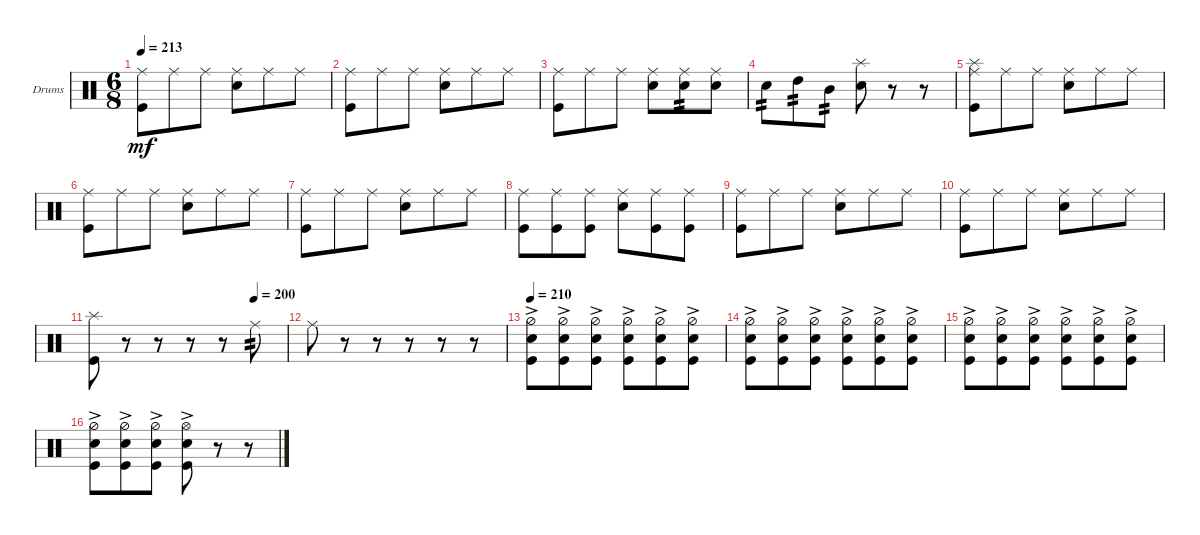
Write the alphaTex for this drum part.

\bracketExtendMode groupsimilarinstruments
\firstSystemTrackNameOrientation horizontal
\otherSystemsTrackNameOrientation horizontal
\track ("Drumkit" "Drums") {instrument percussion}
\staff {score}
\articulation defaults
\ts (6 8)
\tempo 213
\clef neutral
\ks c
("Kick (hit)" "Ride (middle)").8{dy mf} "Ride (middle)".8 "Ride (middle)".8 ("Snare (hit) 2" "Ride (middle)").8 "Ride (middle)".8 "Ride (middle)".8 |
("Kick (hit)" "Ride (middle)").8 "Ride (middle)".8 "Ride (middle)".8 ("Snare (hit) 2" "Ride (middle)").8 "Ride (middle)".8 "Ride (middle)".8 |
("Kick (hit)" "Ride (middle)").8 "Ride (middle)".8 "Ride (middle)".8 ("Snare (hit) 2" "Ride (middle)").8 ("Ride (middle)" "Snare (hit) 2").8{tp 2} ("Ride (middle)" "Snare (hit) 2").8 |
"Snare (hit) 2".8{tp 2} "High Tom (hit)".8{tp 2} "Mid Tom (hit)".8{tp 2} ("Snare (hit) 2" "Splash (hit)").8 r.8 r.8 |
("Kick (hit)" "Splash (hit)" "Ride (middle)").8 "Ride (middle)".8 "Ride (middle)".8 ("Snare (hit) 2" "Ride (middle)").8 "Ride (middle)".8 "Ride (middle)".8 |
("Kick (hit)" "Ride (middle)").8 "Ride (middle)".8 "Ride (middle)".8 ("Snare (hit) 2" "Ride (middle)").8 "Ride (middle)".8 "Ride (middle)".8 |
("Kick (hit)" "Ride (middle)").8 "Ride (middle)".8 "Ride (middle)".8 ("Snare (hit) 2" "Ride (middle)").8 "Ride (middle)".8 "Ride (middle)".8 |
("Kick (hit)" "Ride (middle)").8 ("Kick (hit)" "Ride (middle)").8 ("Kick (hit)" "Ride (middle)").8 ("Snare (hit) 2" "Ride (middle)").8 ("Kick (hit)" "Ride (middle)").8 ("Kick (hit)" "Ride (middle)").8 |
("Kick (hit)" "Ride (middle)").8 "Ride (middle)".8 "Ride (middle)".8 ("Snare (hit) 2" "Ride (middle)").8 "Ride (middle)".8 "Ride (middle)".8 |
("Kick (hit)" "Ride (middle)").8 "Ride (middle)".8 "Ride (middle)".8 ("Snare (hit) 2" "Ride (middle)").8 "Ride (middle)".8 "Ride (middle)".8 |
\tempo (200 0.833333)
("Kick (hit)" "Splash (hit)").8 r.8 r.8 r.8 r.8 "Ride (middle)".8{tp 2} |
"Ride (middle)".8 r.8 r.8 r.8 r.8 r.8 |
\tempo 210
("Snare (hit) 2"{ac} "Hi-Hat (half)"{ac} "Kick (hit)"{ac}).8 ("Snare (hit) 2"{ac} "Hi-Hat (half)"{ac} "Kick (hit)"{ac}).8 ("Snare (hit) 2"{ac} "Hi-Hat (half)"{ac} "Kick (hit)"{ac}).8 ("Snare (hit) 2"{ac} "Hi-Hat (half)"{ac} "Kick (hit)"{ac}).8 ("Snare (hit) 2"{ac} "Hi-Hat (half)"{ac} "Kick (hit)"{ac}).8 ("Snare (hit) 2"{ac} "Hi-Hat (half)"{ac} "Kick (hit)"{ac}).8 |
("Snare (hit) 2"{ac} "Hi-Hat (half)"{ac} "Kick (hit)"{ac}).8 ("Snare (hit) 2"{ac} "Hi-Hat (half)"{ac} "Kick (hit)"{ac}).8 ("Snare (hit) 2"{ac} "Hi-Hat (half)"{ac} "Kick (hit)"{ac}).8 ("Snare (hit) 2"{ac} "Hi-Hat (half)"{ac} "Kick (hit)"{ac}).8 ("Snare (hit) 2"{ac} "Hi-Hat (half)"{ac} "Kick (hit)"{ac}).8 ("Snare (hit) 2"{ac} "Hi-Hat (half)"{ac} "Kick (hit)"{ac}).8 |
("Snare (hit) 2"{ac} "Hi-Hat (half)"{ac} "Kick (hit)"{ac}).8 ("Snare (hit) 2"{ac} "Hi-Hat (half)"{ac} "Kick (hit)"{ac}).8 ("Snare (hit) 2"{ac} "Hi-Hat (half)"{ac} "Kick (hit)"{ac}).8 ("Snare (hit) 2"{ac} "Hi-Hat (half)"{ac} "Kick (hit)"{ac}).8 ("Snare (hit) 2"{ac} "Hi-Hat (half)"{ac} "Kick (hit)"{ac}).8 ("Snare (hit) 2"{ac} "Hi-Hat (half)"{ac} "Kick (hit)"{ac}).8 |
("Snare (hit) 2"{ac} "Hi-Hat (half)"{ac} "Kick (hit)"{ac}).8 ("Snare (hit) 2"{ac} "Hi-Hat (half)"{ac} "Kick (hit)"{ac}).8 ("Snare (hit) 2"{ac} "Hi-Hat (half)"{ac} "Kick (hit)"{ac}).8 ("Snare (hit) 2"{ac} "Hi-Hat (open)"{ac} "Kick (hit)"{ac}).8 r.8 r.8
